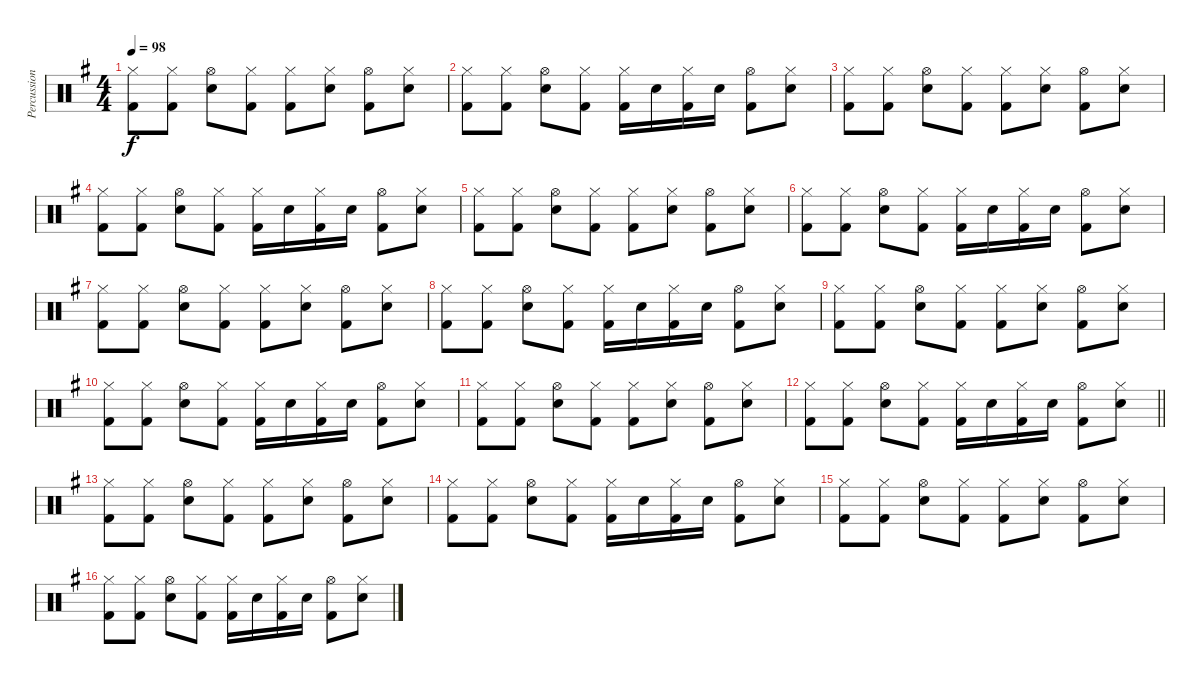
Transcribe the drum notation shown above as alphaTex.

\track ("Percussion" "Percussion") {instrument percussion}
\staff {score}
\articulation defaults
\ts (4 4)
\tempo 98
\clef neutral
\ks eminor
("Hi-Hat (closed)" "Kick (hit) 2").8{dy f} ("Hi-Hat (closed)" "Kick (hit) 2").8 ("Hi-Hat (open)" "Electric Snare (hit)").8 ("Hi-Hat (closed)" "Kick (hit) 2").8 ("Hi-Hat (closed)" "Kick (hit) 2").8 ("Hi-Hat (closed)" "Electric Snare (hit)").8 ("Hi-Hat (open)" "Kick (hit) 2").8 ("Hi-Hat (closed)" "Electric Snare (hit)").8 |
("Hi-Hat (closed)" "Kick (hit) 2").8 ("Hi-Hat (closed)" "Kick (hit) 2").8 ("Hi-Hat (open)" "Electric Snare (hit)").8 ("Hi-Hat (closed)" "Kick (hit) 2").8 ("Hi-Hat (closed)" "Kick (hit) 2").16 "Electric Snare (hit)".16 ("Hi-Hat (closed)" "Kick (hit) 2").16 "Electric Snare (hit)".16 ("Hi-Hat (open)" "Kick (hit) 2").8 ("Hi-Hat (closed)" "Electric Snare (hit)").8 |
("Hi-Hat (closed)" "Kick (hit) 2").8 ("Hi-Hat (closed)" "Kick (hit) 2").8 ("Hi-Hat (open)" "Electric Snare (hit)").8 ("Hi-Hat (closed)" "Kick (hit) 2").8 ("Hi-Hat (closed)" "Kick (hit) 2").8 ("Hi-Hat (closed)" "Electric Snare (hit)").8 ("Hi-Hat (open)" "Kick (hit) 2").8 ("Hi-Hat (closed)" "Electric Snare (hit)").8 |
("Hi-Hat (closed)" "Kick (hit) 2").8 ("Hi-Hat (closed)" "Kick (hit) 2").8 ("Hi-Hat (open)" "Electric Snare (hit)").8 ("Hi-Hat (closed)" "Kick (hit) 2").8 ("Hi-Hat (closed)" "Kick (hit) 2").16 "Electric Snare (hit)".16 ("Hi-Hat (closed)" "Kick (hit) 2").16 "Electric Snare (hit)".16 ("Hi-Hat (open)" "Kick (hit) 2").8 ("Hi-Hat (closed)" "Electric Snare (hit)").8 |
("Hi-Hat (closed)" "Kick (hit) 2").8 ("Hi-Hat (closed)" "Kick (hit) 2").8 ("Hi-Hat (open)" "Electric Snare (hit)").8 ("Hi-Hat (closed)" "Kick (hit) 2").8 ("Hi-Hat (closed)" "Kick (hit) 2").8 ("Hi-Hat (closed)" "Electric Snare (hit)").8 ("Hi-Hat (open)" "Kick (hit) 2").8 ("Hi-Hat (closed)" "Electric Snare (hit)").8 |
("Hi-Hat (closed)" "Kick (hit) 2").8 ("Hi-Hat (closed)" "Kick (hit) 2").8 ("Hi-Hat (open)" "Electric Snare (hit)").8 ("Hi-Hat (closed)" "Kick (hit) 2").8 ("Hi-Hat (closed)" "Kick (hit) 2").16 "Electric Snare (hit)".16 ("Hi-Hat (closed)" "Kick (hit) 2").16 "Electric Snare (hit)".16 ("Hi-Hat (open)" "Kick (hit) 2").8 ("Hi-Hat (closed)" "Electric Snare (hit)").8 |
("Hi-Hat (closed)" "Kick (hit) 2").8 ("Hi-Hat (closed)" "Kick (hit) 2").8 ("Hi-Hat (open)" "Electric Snare (hit)").8 ("Hi-Hat (closed)" "Kick (hit) 2").8 ("Hi-Hat (closed)" "Kick (hit) 2").8 ("Hi-Hat (closed)" "Electric Snare (hit)").8 ("Hi-Hat (open)" "Kick (hit) 2").8 ("Hi-Hat (closed)" "Electric Snare (hit)").8 |
("Hi-Hat (closed)" "Kick (hit) 2").8 ("Hi-Hat (closed)" "Kick (hit) 2").8 ("Hi-Hat (open)" "Electric Snare (hit)").8 ("Hi-Hat (closed)" "Kick (hit) 2").8 ("Hi-Hat (closed)" "Kick (hit) 2").16 "Electric Snare (hit)".16 ("Hi-Hat (closed)" "Kick (hit) 2").16 "Electric Snare (hit)".16 ("Hi-Hat (open)" "Kick (hit) 2").8 ("Hi-Hat (closed)" "Electric Snare (hit)").8 |
("Hi-Hat (closed)" "Kick (hit) 2").8 ("Hi-Hat (closed)" "Kick (hit) 2").8 ("Hi-Hat (open)" "Electric Snare (hit)").8 ("Hi-Hat (closed)" "Kick (hit) 2").8 ("Hi-Hat (closed)" "Kick (hit) 2").8 ("Hi-Hat (closed)" "Electric Snare (hit)").8 ("Hi-Hat (open)" "Kick (hit) 2").8 ("Hi-Hat (closed)" "Electric Snare (hit)").8 |
("Hi-Hat (closed)" "Kick (hit) 2").8 ("Hi-Hat (closed)" "Kick (hit) 2").8 ("Hi-Hat (open)" "Electric Snare (hit)").8 ("Hi-Hat (closed)" "Kick (hit) 2").8 ("Hi-Hat (closed)" "Kick (hit) 2").16 "Electric Snare (hit)".16 ("Hi-Hat (closed)" "Kick (hit) 2").16 "Electric Snare (hit)".16 ("Hi-Hat (open)" "Kick (hit) 2").8 ("Hi-Hat (closed)" "Electric Snare (hit)").8 |
("Hi-Hat (closed)" "Kick (hit) 2").8 ("Hi-Hat (closed)" "Kick (hit) 2").8 ("Hi-Hat (open)" "Electric Snare (hit)").8 ("Hi-Hat (closed)" "Kick (hit) 2").8 ("Hi-Hat (closed)" "Kick (hit) 2").8 ("Hi-Hat (closed)" "Electric Snare (hit)").8 ("Hi-Hat (open)" "Kick (hit) 2").8 ("Hi-Hat (closed)" "Electric Snare (hit)").8 |
\barLineRight lightlight
("Hi-Hat (closed)" "Kick (hit) 2").8 ("Hi-Hat (closed)" "Kick (hit) 2").8 ("Hi-Hat (open)" "Electric Snare (hit)").8 ("Hi-Hat (closed)" "Kick (hit) 2").8 ("Hi-Hat (closed)" "Kick (hit) 2").16 "Electric Snare (hit)".16 ("Hi-Hat (closed)" "Kick (hit) 2").16 "Electric Snare (hit)".16 ("Hi-Hat (open)" "Kick (hit) 2").8 ("Hi-Hat (closed)" "Electric Snare (hit)").8 |
("Hi-Hat (closed)" "Kick (hit) 2").8 ("Hi-Hat (closed)" "Kick (hit) 2").8 ("Hi-Hat (open)" "Electric Snare (hit)").8 ("Hi-Hat (closed)" "Kick (hit) 2").8 ("Hi-Hat (closed)" "Kick (hit) 2").8 ("Hi-Hat (closed)" "Electric Snare (hit)").8 ("Hi-Hat (open)" "Kick (hit) 2").8 ("Hi-Hat (closed)" "Electric Snare (hit)").8 |
("Hi-Hat (closed)" "Kick (hit) 2").8 ("Hi-Hat (closed)" "Kick (hit) 2").8 ("Hi-Hat (open)" "Electric Snare (hit)").8 ("Hi-Hat (closed)" "Kick (hit) 2").8 ("Hi-Hat (closed)" "Kick (hit) 2").16 "Electric Snare (hit)".16 ("Hi-Hat (closed)" "Kick (hit) 2").16 "Electric Snare (hit)".16 ("Hi-Hat (open)" "Kick (hit) 2").8 ("Hi-Hat (closed)" "Electric Snare (hit)").8 |
("Hi-Hat (closed)" "Kick (hit) 2").8 ("Hi-Hat (closed)" "Kick (hit) 2").8 ("Hi-Hat (open)" "Electric Snare (hit)").8 ("Hi-Hat (closed)" "Kick (hit) 2").8 ("Hi-Hat (closed)" "Kick (hit) 2").8 ("Hi-Hat (closed)" "Electric Snare (hit)").8 ("Hi-Hat (open)" "Kick (hit) 2").8 ("Hi-Hat (closed)" "Electric Snare (hit)").8 |
("Hi-Hat (closed)" "Kick (hit) 2").8 ("Hi-Hat (closed)" "Kick (hit) 2").8 ("Hi-Hat (open)" "Electric Snare (hit)").8 ("Hi-Hat (closed)" "Kick (hit) 2").8 ("Hi-Hat (closed)" "Kick (hit) 2").16 "Electric Snare (hit)".16 ("Hi-Hat (closed)" "Kick (hit) 2").16 "Electric Snare (hit)".16 ("Hi-Hat (open)" "Kick (hit) 2").8 ("Hi-Hat (closed)" "Electric Snare (hit)").8
